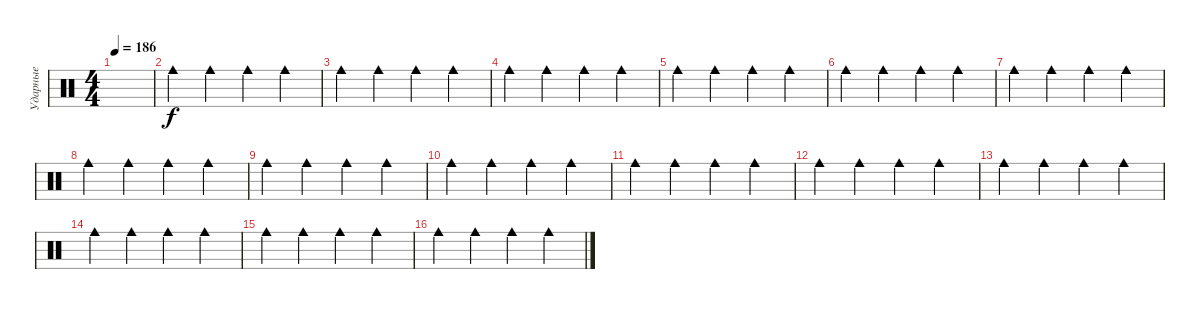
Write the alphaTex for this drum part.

\track ("Ударные" "Ударные") {mute instrument percussion}
\staff {score}
\articulation defaults
\ts (4 4)
\tempo 186
\clef neutral
\ks c
|
"Cowbell medium (hit)".4 "Cowbell medium (hit)".4 "Cowbell medium (hit)".4 "Cowbell medium (hit)".4 |
"Cowbell medium (hit)".4 "Cowbell medium (hit)".4 "Cowbell medium (hit)".4 "Cowbell medium (hit)".4 |
"Cowbell medium (hit)".4 "Cowbell medium (hit)".4 "Cowbell medium (hit)".4 "Cowbell medium (hit)".4 |
"Cowbell medium (hit)".4 "Cowbell medium (hit)".4 "Cowbell medium (hit)".4 "Cowbell medium (hit)".4 |
"Cowbell medium (hit)".4 "Cowbell medium (hit)".4 "Cowbell medium (hit)".4 "Cowbell medium (hit)".4 |
"Cowbell medium (hit)".4 "Cowbell medium (hit)".4 "Cowbell medium (hit)".4 "Cowbell medium (hit)".4 |
"Cowbell medium (hit)".4 "Cowbell medium (hit)".4 "Cowbell medium (hit)".4 "Cowbell medium (hit)".4 |
"Cowbell medium (hit)".4 "Cowbell medium (hit)".4 "Cowbell medium (hit)".4 "Cowbell medium (hit)".4 |
"Cowbell medium (hit)".4 "Cowbell medium (hit)".4 "Cowbell medium (hit)".4 "Cowbell medium (hit)".4 |
"Cowbell medium (hit)".4 "Cowbell medium (hit)".4 "Cowbell medium (hit)".4 "Cowbell medium (hit)".4 |
"Cowbell medium (hit)".4 "Cowbell medium (hit)".4 "Cowbell medium (hit)".4 "Cowbell medium (hit)".4 |
"Cowbell medium (hit)".4 "Cowbell medium (hit)".4 "Cowbell medium (hit)".4 "Cowbell medium (hit)".4 |
"Cowbell medium (hit)".4 "Cowbell medium (hit)".4 "Cowbell medium (hit)".4 "Cowbell medium (hit)".4 |
"Cowbell medium (hit)".4 "Cowbell medium (hit)".4 "Cowbell medium (hit)".4 "Cowbell medium (hit)".4 |
"Cowbell medium (hit)".4 "Cowbell medium (hit)".4 "Cowbell medium (hit)".4 "Cowbell medium (hit)".4
